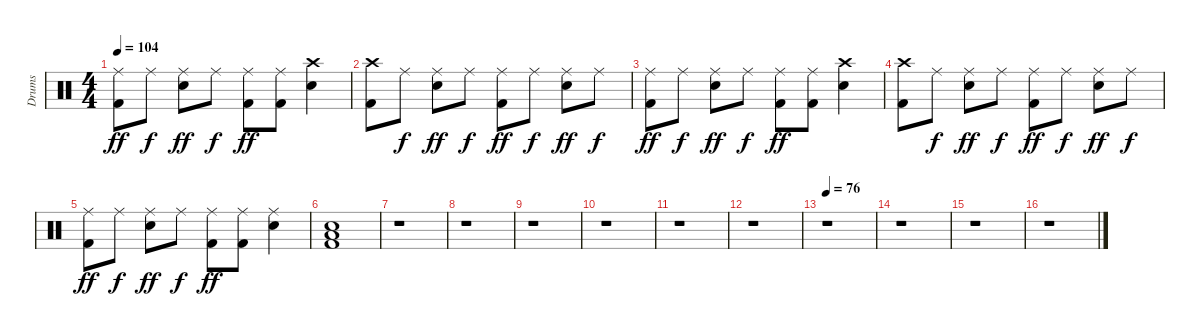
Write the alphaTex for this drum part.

\track ("Drums" "Drums") {instrument percussion}
\staff {score}
\articulation defaults
\ts (4 4)
\tempo 104
\clef neutral
\ks c
("Ride (middle)" "Kick (hit) 2").8{dy ff} "Ride (middle)".8{dy f} ("Ride (middle)" "Snare (hit) 2").8{dy ff} "Ride (middle)".8{dy f} ("Ride (middle)" "Kick (hit) 2").8{dy ff} ("Ride (middle)" "Kick (hit) 2").8 ("Crash high (hit)" "Snare (hit) 2").4 |
("Crash high (hit)" "Kick (hit) 2").8 "Ride (middle)".8{dy f} ("Ride (middle)" "Snare (hit) 2").8{dy ff} "Ride (middle)".8{dy f} ("Ride (middle)" "Kick (hit) 2").8{dy ff} "Ride (middle)".8{dy f} ("Ride (middle)" "Snare (hit) 2").8{dy ff} "Ride (middle)".8{dy f} |
("Ride (middle)" "Kick (hit) 2").8{dy ff} "Ride (middle)".8{dy f} ("Ride (middle)" "Snare (hit) 2").8{dy ff} "Ride (middle)".8{dy f} ("Ride (middle)" "Kick (hit) 2").8{dy ff} ("Ride (middle)" "Kick (hit) 2").8 ("Crash high (hit)" "Snare (hit) 2").4 |
("Crash high (hit)" "Kick (hit) 2").8 "Ride (middle)".8{dy f} ("Ride (middle)" "Snare (hit) 2").8{dy ff} "Ride (middle)".8{dy f} ("Ride (middle)" "Kick (hit) 2").8{dy ff} "Ride (middle)".8{dy f} ("Ride (middle)" "Snare (hit) 2").8{dy ff} "Ride (middle)".8{dy f} |
("Ride (middle)" "Kick (hit) 2").8{dy ff} "Ride (middle)".8{dy f} ("Ride (middle)" "Snare (hit) 2").8{dy ff} "Ride (middle)".8{dy f} ("Ride (middle)" "Kick (hit) 2").8{dy ff} ("Ride (middle)" "Kick (hit) 2").8 ("Ride (middle)" "Snare (hit) 2").4 |
("Low Floor Tom (hit)" "Snare (hit) 2" "Kick (hit) 2").1 |
r.1 |
r.1 |
r.1 |
r.1 |
r.1 |
r.1 |
\tempo 76
r.1 |
r.1 |
r.1 |
r.1
